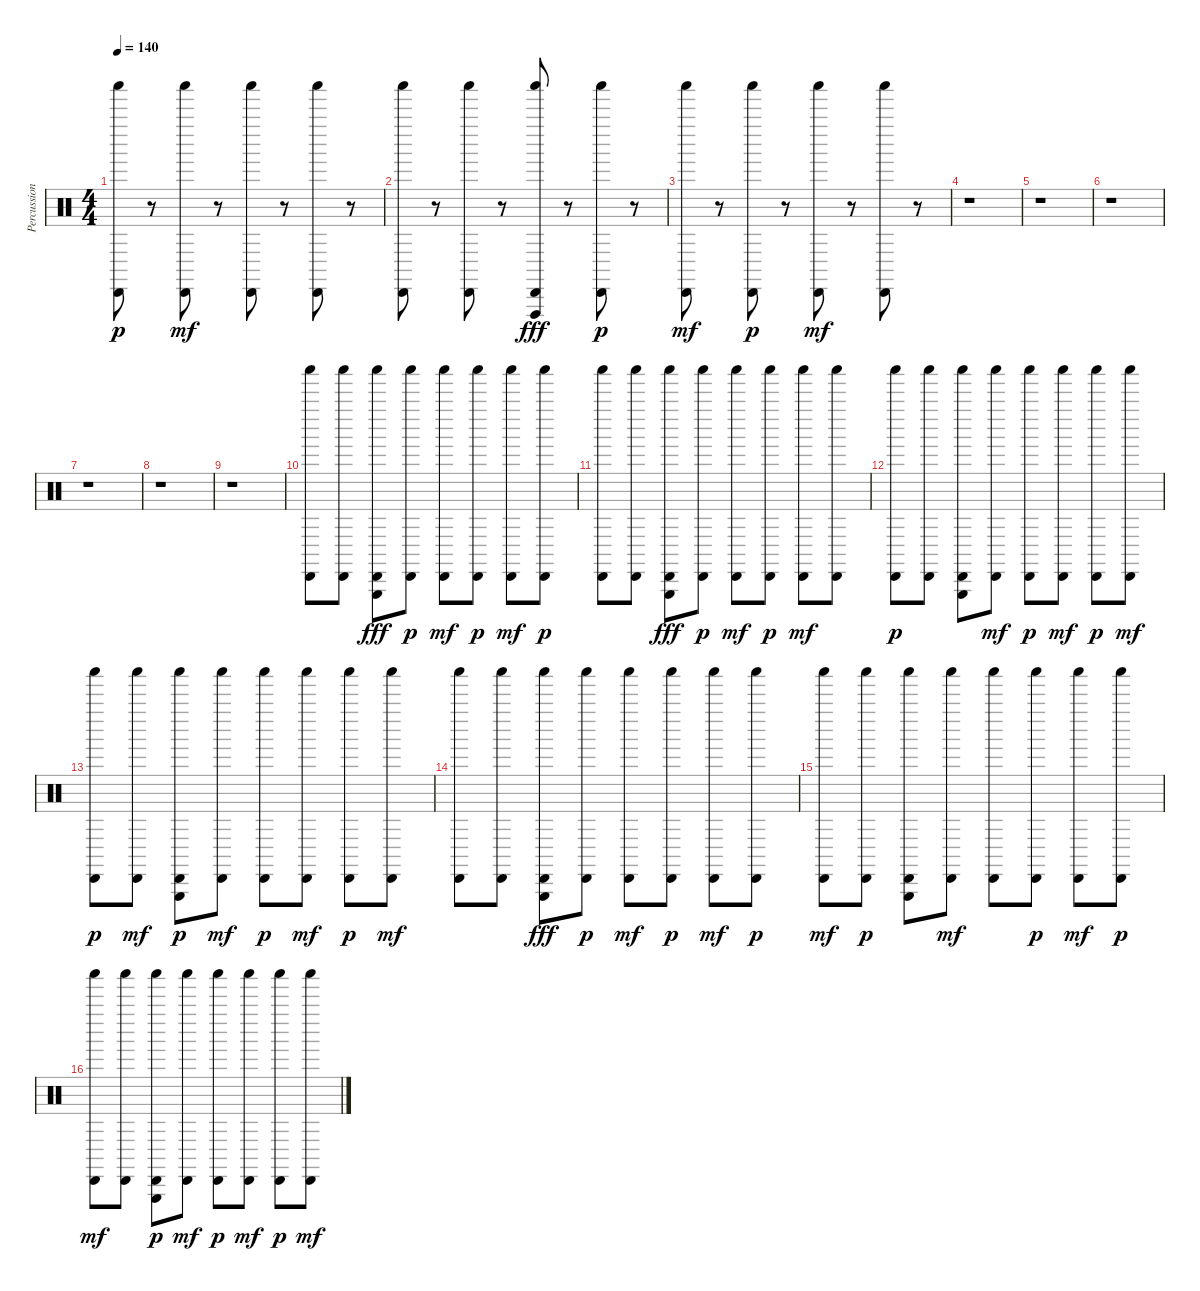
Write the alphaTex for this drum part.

\track ("Percussion Std Drums" "Percussion") {instrument percussion}
\staff {score}
\articulation defaults
\ts (4 4)
\tempo 140
\clef neutral
\ks c
("Cabasa (hit)" "Shaker (hit)").8{dy p} r.8 ("Shaker (hit)" "Cabasa (hit)").8{dy mf} r.8 ("Shaker (hit)" "Cabasa (hit)").8 r.8 ("Shaker (hit)" "Cabasa (hit)").8 r.8 |
("Shaker (hit)" "Cabasa (hit)").8 r.8 ("Shaker (hit)" "Cabasa (hit)").8 r.8 ("Shaker (hit)" "Cabasa (hit)" "Vibraslap (hit)").8{dy fff} r.8 ("Cabasa (hit)" "Shaker (hit)").8{dy p} r.8 |
("Shaker (hit)" "Cabasa (hit)").8{dy mf} r.8 ("Cabasa (hit)" "Shaker (hit)").8{dy p} r.8 ("Shaker (hit)" "Cabasa (hit)").8{dy mf} r.8 ("Shaker (hit)" "Cabasa (hit)").8 r.8 |
r.1 |
r.1 |
r.1 |
r.1 |
r.1 |
r.1 |
("Shaker (hit)" "Cabasa (hit)").8 ("Shaker (hit)" "Cabasa (hit)").8 ("Cabasa (hit)" "Shaker (hit)" "Triangle (hit)").8{dy fff} ("Cabasa (hit)" "Shaker (hit)").8{dy p} ("Shaker (hit)" "Cabasa (hit)").8{dy mf} ("Cabasa (hit)" "Shaker (hit)").8{dy p} ("Shaker (hit)" "Cabasa (hit)").8{dy mf} ("Cabasa (hit)" "Shaker (hit)").8{dy p} |
("Cabasa (hit)" "Shaker (hit)").8 ("Cabasa (hit)" "Shaker (hit)").8 ("Cabasa (hit)" "Shaker (hit)" "Triangle (hit)").8{dy fff} ("Cabasa (hit)" "Shaker (hit)").8{dy p} ("Shaker (hit)" "Cabasa (hit)").8{dy mf} ("Cabasa (hit)" "Shaker (hit)").8{dy p} ("Shaker (hit)" "Cabasa (hit)").8{dy mf} ("Shaker (hit)" "Cabasa (hit)").8 |
("Cabasa (hit)" "Shaker (hit)").8{dy p} ("Cabasa (hit)" "Shaker (hit)").8 ("Triangle (hit)" "Cabasa (hit)" "Shaker (hit)").8 ("Shaker (hit)" "Cabasa (hit)").8{dy mf} ("Cabasa (hit)" "Shaker (hit)").8{dy p} ("Shaker (hit)" "Cabasa (hit)").8{dy mf} ("Cabasa (hit)" "Shaker (hit)").8{dy p} ("Shaker (hit)" "Cabasa (hit)").8{dy mf} |
("Cabasa (hit)" "Shaker (hit)").8{dy p} ("Shaker (hit)" "Cabasa (hit)").8{dy mf} ("Cabasa (hit)" "Triangle (hit)" "Shaker (hit)").8{dy p} ("Shaker (hit)" "Cabasa (hit)").8{dy mf} ("Cabasa (hit)" "Shaker (hit)").8{dy p} ("Shaker (hit)" "Cabasa (hit)").8{dy mf} ("Cabasa (hit)" "Shaker (hit)").8{dy p} ("Shaker (hit)" "Cabasa (hit)").8{dy mf} |
("Shaker (hit)" "Cabasa (hit)").8 ("Shaker (hit)" "Cabasa (hit)").8 ("Shaker (hit)" "Cabasa (hit)" "Triangle (hit)").8{dy fff} ("Cabasa (hit)" "Shaker (hit)").8{dy p} ("Shaker (hit)" "Cabasa (hit)").8{dy mf} ("Cabasa (hit)" "Shaker (hit)").8{dy p} ("Shaker (hit)" "Cabasa (hit)").8{dy mf} ("Cabasa (hit)" "Shaker (hit)").8{dy p} |
("Shaker (hit)" "Cabasa (hit)").8{dy mf} ("Cabasa (hit)" "Shaker (hit)").8{dy p} ("Cabasa (hit)" "Triangle (hit)" "Shaker (hit)").8 ("Shaker (hit)" "Cabasa (hit)").8{dy mf} ("Shaker (hit)" "Cabasa (hit)").8 ("Cabasa (hit)" "Shaker (hit)").8{dy p} ("Shaker (hit)" "Cabasa (hit)").8{dy mf} ("Cabasa (hit)" "Shaker (hit)").8{dy p} |
("Shaker (hit)" "Cabasa (hit)").8{dy mf} ("Shaker (hit)" "Cabasa (hit)").8 ("Triangle (hit)" "Cabasa (hit)" "Shaker (hit)").8{dy p} ("Shaker (hit)" "Cabasa (hit)").8{dy mf} ("Cabasa (hit)" "Shaker (hit)").8{dy p} ("Shaker (hit)" "Cabasa (hit)").8{dy mf} ("Cabasa (hit)" "Shaker (hit)").8{dy p} ("Shaker (hit)" "Cabasa (hit)").8{dy mf}
